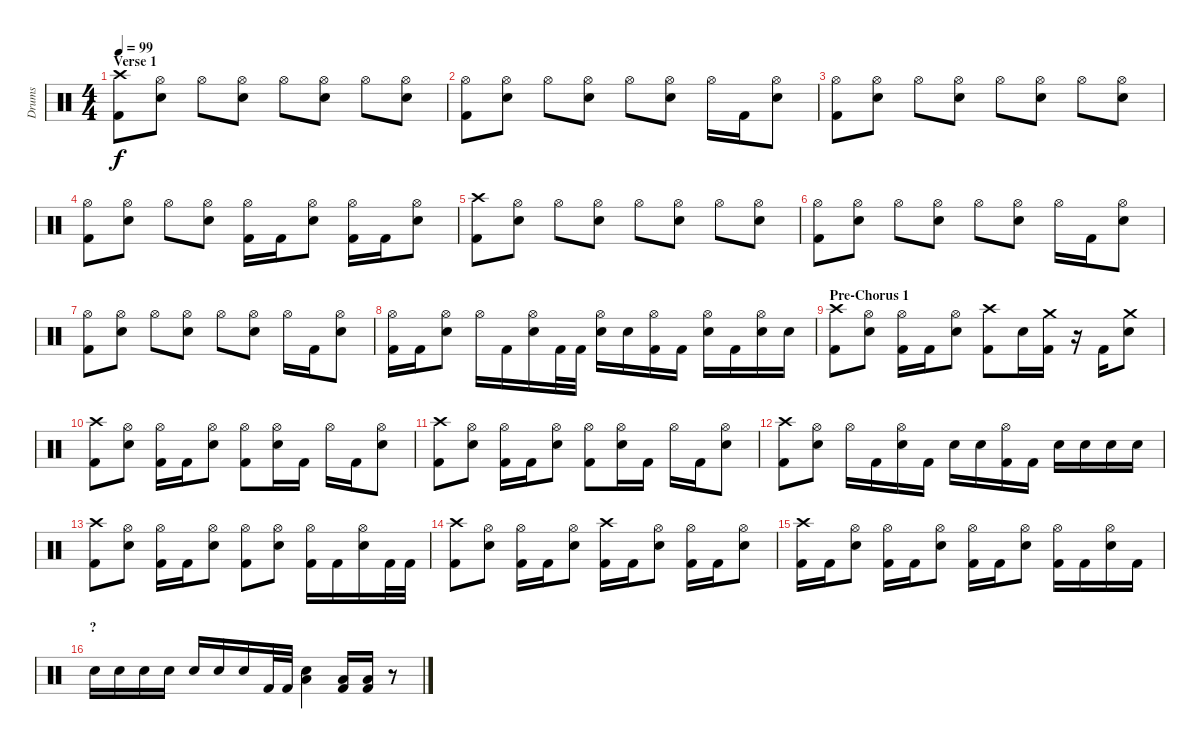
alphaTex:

\track ("Drums" "Drums") {instrument percussion}
\staff {score}
\articulation defaults
\ts (4 4)
\section ("" "Verse 1")
\tempo 99
\clef neutral
\ks c
("Kick (hit) 2" "Crash high (hit)").8{dy f} ("Electric Snare (hit)" "Hi-Hat (open)").8 "Hi-Hat (open)".8 ("Electric Snare (hit)" "Hi-Hat (open)").8 "Hi-Hat (open)".8 ("Electric Snare (hit)" "Hi-Hat (open)").8 "Hi-Hat (open)".8 ("Electric Snare (hit)" "Hi-Hat (open)").8 |
("Kick (hit) 2" "Hi-Hat (open)").8 ("Electric Snare (hit)" "Hi-Hat (open)").8 "Hi-Hat (open)".8 ("Electric Snare (hit)" "Hi-Hat (open)").8 "Hi-Hat (open)".8 ("Electric Snare (hit)" "Hi-Hat (open)").8 "Hi-Hat (open)".16 "Kick (hit) 2".16 ("Electric Snare (hit)" "Hi-Hat (open)").8 |
("Kick (hit) 2" "Hi-Hat (open)").8 ("Electric Snare (hit)" "Hi-Hat (open)").8 "Hi-Hat (open)".8 ("Electric Snare (hit)" "Hi-Hat (open)").8 "Hi-Hat (open)".8 ("Electric Snare (hit)" "Hi-Hat (open)").8 "Hi-Hat (open)".8 ("Electric Snare (hit)" "Hi-Hat (open)").8 |
("Kick (hit) 2" "Hi-Hat (open)").8 ("Electric Snare (hit)" "Hi-Hat (open)").8 "Hi-Hat (open)".8 ("Electric Snare (hit)" "Hi-Hat (open)").8 ("Kick (hit) 2" "Hi-Hat (open)").16 "Kick (hit) 2".16 ("Electric Snare (hit)" "Hi-Hat (open)").8 ("Kick (hit) 2" "Hi-Hat (open)").16 "Kick (hit) 2".16 ("Electric Snare (hit)" "Hi-Hat (open)").8 |
("Kick (hit) 2" "Crash high (hit)").8 ("Electric Snare (hit)" "Hi-Hat (open)").8 "Hi-Hat (open)".8 ("Electric Snare (hit)" "Hi-Hat (open)").8 "Hi-Hat (open)".8 ("Electric Snare (hit)" "Hi-Hat (open)").8 "Hi-Hat (open)".8 ("Electric Snare (hit)" "Hi-Hat (open)").8 |
("Kick (hit) 2" "Hi-Hat (open)").8 ("Electric Snare (hit)" "Hi-Hat (open)").8 "Hi-Hat (open)".8 ("Electric Snare (hit)" "Hi-Hat (open)").8 "Hi-Hat (open)".8 ("Electric Snare (hit)" "Hi-Hat (open)").8 "Hi-Hat (open)".16 "Kick (hit) 2".16 ("Electric Snare (hit)" "Hi-Hat (open)").8 |
("Kick (hit) 2" "Hi-Hat (open)").8 ("Electric Snare (hit)" "Hi-Hat (open)").8 "Hi-Hat (open)".8 ("Electric Snare (hit)" "Hi-Hat (open)").8 "Hi-Hat (open)".8 ("Electric Snare (hit)" "Hi-Hat (open)").8 "Hi-Hat (open)".16 "Kick (hit) 2".16 ("Electric Snare (hit)" "Hi-Hat (open)").8 |
("Kick (hit) 2" "Hi-Hat (open)").16 "Kick (hit) 2".16 ("Electric Snare (hit)" "Hi-Hat (open)").8 "Hi-Hat (open)".16 "Kick (hit) 2".16 ("Electric Snare (hit)" "Hi-Hat (open)").16 "Kick (hit) 2".32 "Kick (hit) 2".32 ("Electric Snare (hit)" "Hi-Hat (open)").16 "Electric Snare (hit)".16 ("Kick (hit) 2" "Hi-Hat (open)").16 "Kick (hit) 2".16 ("Electric Snare (hit)" "Hi-Hat (open)").16 "Kick (hit) 2".16 ("Electric Snare (hit)" "Hi-Hat (open)").16 "Electric Snare (hit)".16 |
\section ("" "Pre-Chorus 1")
("Kick (hit) 2" "Crash high (hit)").8 ("Electric Snare (hit)" "Hi-Hat (open)").8 ("Kick (hit) 2" "Hi-Hat (open)").16 "Kick (hit) 2".16 ("Electric Snare (hit)" "Hi-Hat (open)").8 ("Kick (hit) 2" "Crash high (hit)").8 "Electric Snare (hit)".16 ("Kick (hit) 2" "Crash medium (hit)").16 r.16 "Kick (hit) 2".16 ("Electric Snare (hit)" "Crash medium (hit)").8 |
("Kick (hit) 2" "Crash high (hit)").8 ("Electric Snare (hit)" "Hi-Hat (open)").8 ("Kick (hit) 2" "Hi-Hat (open)").16 "Kick (hit) 2".16 ("Electric Snare (hit)" "Hi-Hat (open)").8 ("Kick (hit) 2" "Hi-Hat (open)").8 ("Electric Snare (hit)" "Hi-Hat (open)").16 "Kick (hit) 2".16 "Hi-Hat (open)".16 "Kick (hit) 2".16 ("Electric Snare (hit)" "Hi-Hat (open)").8 |
("Kick (hit) 2" "Crash high (hit)").8 ("Electric Snare (hit)" "Hi-Hat (open)").8 ("Kick (hit) 2" "Hi-Hat (open)").16 "Kick (hit) 2".16 ("Electric Snare (hit)" "Hi-Hat (open)").8 ("Kick (hit) 2" "Hi-Hat (open)").8 ("Electric Snare (hit)" "Hi-Hat (open)").16 "Kick (hit) 2".16 "Hi-Hat (open)".16 "Kick (hit) 2".16 ("Electric Snare (hit)" "Hi-Hat (open)").8 |
("Kick (hit) 2" "Crash high (hit)").8 ("Electric Snare (hit)" "Hi-Hat (open)").8 "Hi-Hat (open)".16 "Kick (hit) 2".16 ("Electric Snare (hit)" "Hi-Hat (open)").16 "Kick (hit) 2".16 "Electric Snare (hit)".16 "Electric Snare (hit)".16 ("Kick (hit) 2" "Hi-Hat (open)").16 "Kick (hit) 2".16 "Electric Snare (hit)".16 "Electric Snare (hit)".16 "Electric Snare (hit)".16 "Electric Snare (hit)".16 |
("Kick (hit) 2" "Crash high (hit)").8 ("Electric Snare (hit)" "Hi-Hat (open)").8 ("Kick (hit) 2" "Hi-Hat (open)").16 "Kick (hit) 2".16 ("Electric Snare (hit)" "Hi-Hat (open)").8 ("Kick (hit) 2" "Hi-Hat (open)").8 ("Electric Snare (hit)" "Hi-Hat (open)").8 ("Kick (hit) 2" "Hi-Hat (open)").16 "Kick (hit) 2".16 ("Electric Snare (hit)" "Hi-Hat (open)").16 "Kick (hit) 2".32 "Kick (hit) 2".32 |
("Kick (hit) 2" "Crash high (hit)").8 ("Electric Snare (hit)" "Hi-Hat (open)").8 ("Kick (hit) 2" "Hi-Hat (open)").16 "Kick (hit) 2".16 ("Electric Snare (hit)" "Hi-Hat (open)").8 ("Kick (hit) 2" "Crash high (hit)").16 "Kick (hit) 2".16 ("Electric Snare (hit)" "Hi-Hat (open)").8 ("Kick (hit) 2" "Hi-Hat (open)").16 "Kick (hit) 2".16 ("Electric Snare (hit)" "Hi-Hat (open)").8 |
("Kick (hit) 2" "Crash high (hit)").16 "Kick (hit) 2".16 ("Electric Snare (hit)" "Hi-Hat (open)").8 ("Kick (hit) 2" "Hi-Hat (open)").16 "Kick (hit) 2".16 ("Electric Snare (hit)" "Hi-Hat (open)").8 ("Kick (hit) 2" "Hi-Hat (open)").16 "Kick (hit) 2".16 ("Electric Snare (hit)" "Hi-Hat (open)").8 ("Kick (hit) 2" "Hi-Hat (open)").16 "Kick (hit) 2".16 ("Electric Snare (hit)" "Hi-Hat (open)").16 "Kick (hit) 2".16 |
\section ("" "?")
"Electric Snare (hit)".16 "Electric Snare (hit)".16 "Electric Snare (hit)".16 "Electric Snare (hit)".16 "Electric Snare (hit)".16 "Electric Snare (hit)".16 "Electric Snare (hit)".16 "Kick (hit) 2".32 "Kick (hit) 2".32 ("Electric Snare (hit)" "Low Tom (hit)").4 ("Kick (hit) 2" "Low Tom (hit)").16 ("Kick (hit) 2" "Low Tom (hit)").16 r.8
